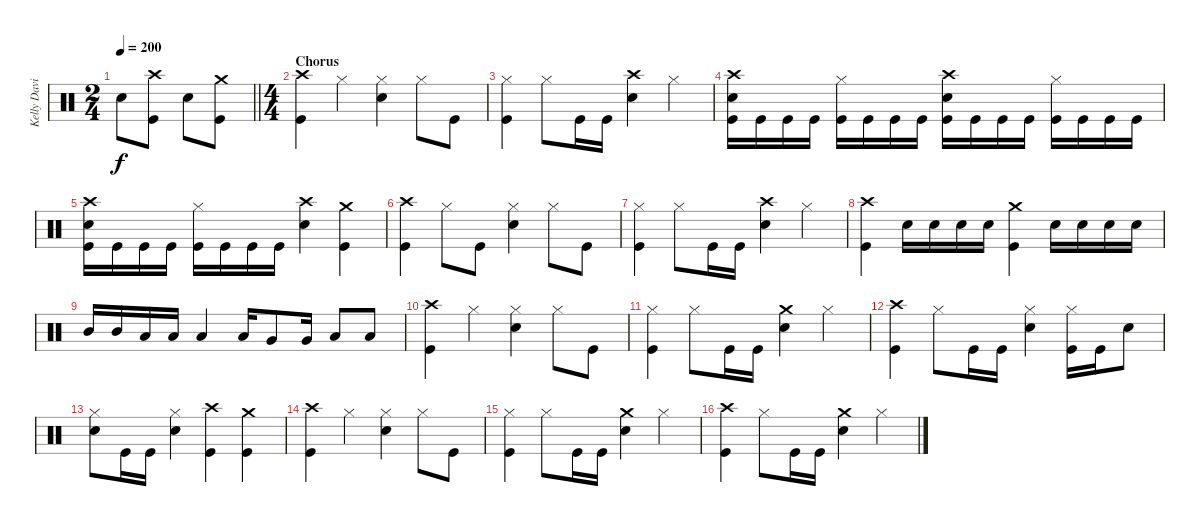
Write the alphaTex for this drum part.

\track ("Kelly David Smith" "Kelly Davi") {instrument percussion}
\staff {score}
\articulation defaults
\ts (2 4)
\tempo 200
\clef neutral
\barLineRight lightlight
\ks c "Snare (hit) 2".8{dy f}
("Crash high (hit)" "Kick (hit)").8 "Snare (hit) 2".8 ("Crash medium (hit)" "Kick (hit)").8 |
\ts (4 4)
\section ("" "Chorus")
("Crash high (hit)" "Kick (hit)").4 "Hi-Hat (closed)".4 ("Hi-Hat (closed)" "Electric Snare (hit)").4 "Hi-Hat (closed)".8 "Kick (hit)".8 |
("Hi-Hat (closed)" "Kick (hit)").4 "Hi-Hat (closed)".8 "Kick (hit)".16 "Kick (hit)".16 ("Crash high (hit)" "Electric Snare (hit)").4 "Hi-Hat (closed)".4 |
("Crash high (hit)" "Electric Snare (hit)" "Kick (hit)").16 "Kick (hit)".16 "Kick (hit)".16 "Kick (hit)".16 ("Hi-Hat (closed)" "Kick (hit)").16 "Kick (hit)".16 "Kick (hit)".16 "Kick (hit)".16 ("Crash high (hit)" "Electric Snare (hit)" "Kick (hit)").16 "Kick (hit)".16 "Kick (hit)".16 "Kick (hit)".16 ("Hi-Hat (closed)" "Kick (hit)").16 "Kick (hit)".16 "Kick (hit)".16 "Kick (hit)".16 |
("Crash high (hit)" "Electric Snare (hit)" "Kick (hit)").16 "Kick (hit)".16 "Kick (hit)".16 "Kick (hit)".16 ("Hi-Hat (closed)" "Kick (hit)").16 "Kick (hit)".16 "Kick (hit)".16 "Kick (hit)".16 ("Crash high (hit)" "Electric Snare (hit)").4 ("Crash medium (hit)" "Kick (hit)").4 |
("Crash high (hit)" "Kick (hit)").4 "Hi-Hat (closed)".8 "Kick (hit)".8 ("Hi-Hat (closed)" "Electric Snare (hit)").4 "Hi-Hat (closed)".8 "Kick (hit)".8 |
("Hi-Hat (closed)" "Kick (hit)").4 "Hi-Hat (closed)".8 "Kick (hit)".16 "Kick (hit)".16 ("Crash high (hit)" "Electric Snare (hit)").4 "Hi-Hat (closed)".4 |
("Crash high (hit)" "Kick (hit)").4 "Electric Snare (hit)".16 "Electric Snare (hit)".16 "Electric Snare (hit)".16 "Electric Snare (hit)".16 ("Crash medium (hit)" "Kick (hit)").4 "Electric Snare (hit)".16 "Electric Snare (hit)".16 "Electric Snare (hit)".16 "Electric Snare (hit)".16 |
"Mid Tom (hit)".16 "Mid Tom (hit)".16 "Low Tom (hit)".16 "Low Tom (hit)".16 "Low Tom (hit)".4 "Low Tom (hit)".16 "Very Low Tom (hit)".8 "Very Low Tom (hit)".16 "Low Floor Tom (hit)".8 "Low Floor Tom (hit)".8 |
("Crash high (hit)" "Kick (hit)").4 "Hi-Hat (closed)".4 ("Hi-Hat (closed)" "Electric Snare (hit)").4 "Hi-Hat (closed)".8 "Kick (hit)".8 |
("Hi-Hat (closed)" "Kick (hit)").4 "Hi-Hat (closed)".8 "Kick (hit)".16 "Kick (hit)".16 ("Crash medium (hit)" "Electric Snare (hit)").4 "Hi-Hat (closed)".4 |
("Crash high (hit)" "Kick (hit)").4 "Hi-Hat (closed)".8 "Kick (hit)".16 "Kick (hit)".16 ("Hi-Hat (closed)" "Electric Snare (hit)").4 ("Hi-Hat (closed)" "Kick (hit)").16 "Kick (hit)".16 "Electric Snare (hit)".8 |
("Hi-Hat (closed)" "Electric Snare (hit)").8 "Kick (hit)".16 "Kick (hit)".16 ("Hi-Hat (closed)" "Electric Snare (hit)").4 ("Crash high (hit)" "Kick (hit)").4 ("Crash medium (hit)" "Kick (hit)").4 |
("Crash high (hit)" "Kick (hit)").4 "Hi-Hat (closed)".4 ("Hi-Hat (closed)" "Electric Snare (hit)").4 "Hi-Hat (closed)".8 "Kick (hit)".8 |
("Hi-Hat (closed)" "Kick (hit)").4 "Hi-Hat (closed)".8 "Kick (hit)".16 "Kick (hit)".16 ("Crash medium (hit)" "Electric Snare (hit)").4 "Hi-Hat (closed)".4 |
("Crash high (hit)" "Kick (hit)").4 "Hi-Hat (closed)".8 "Kick (hit)".16 "Kick (hit)".16 ("Crash medium (hit)" "Electric Snare (hit)").4 "Hi-Hat (closed)".4
